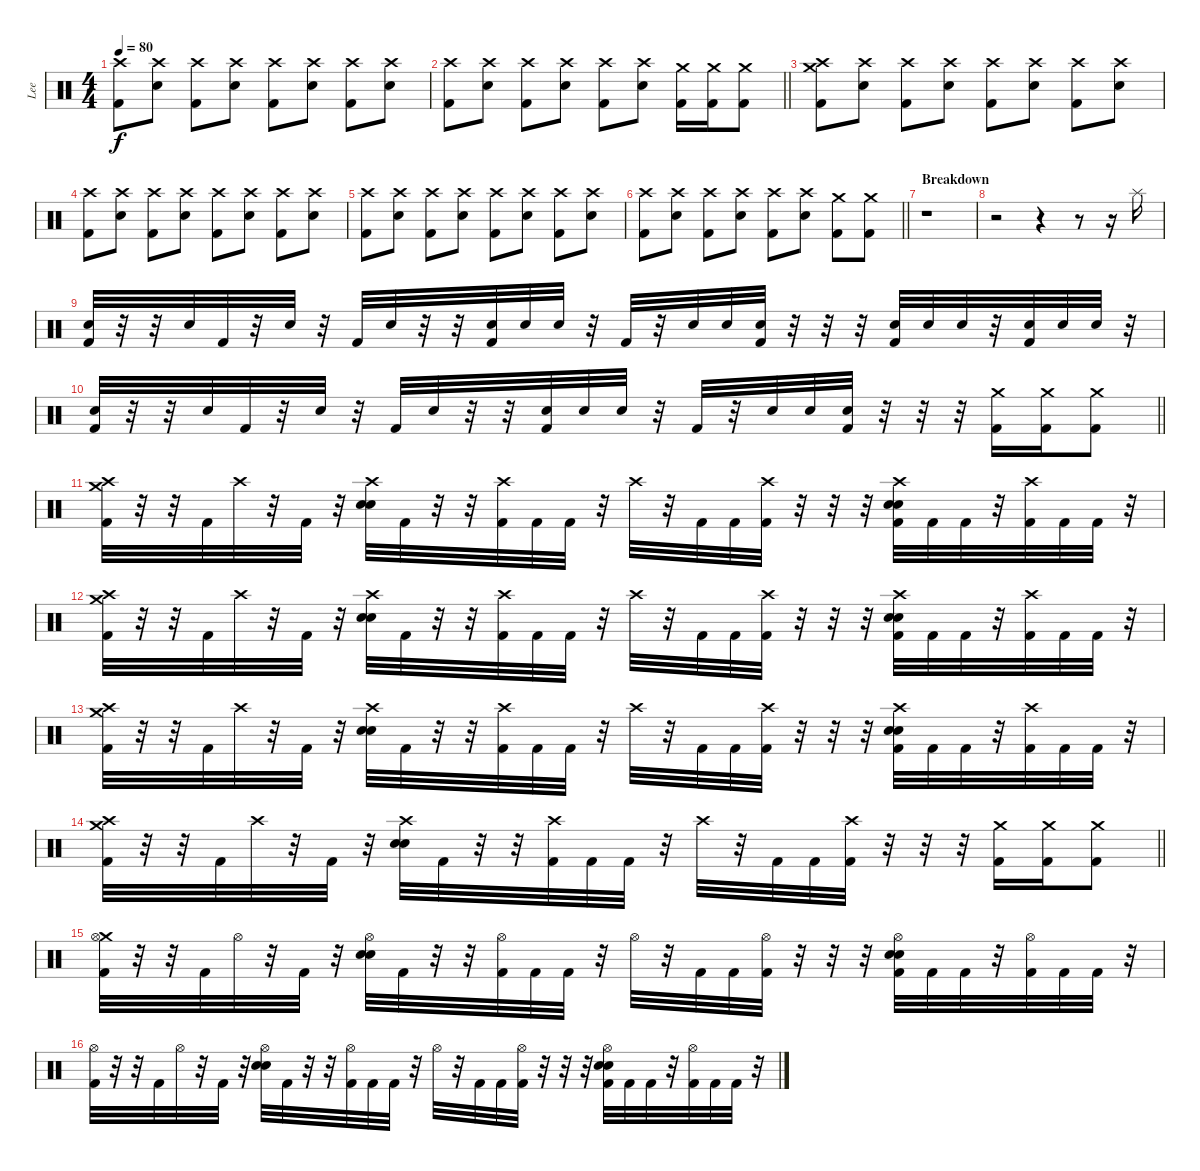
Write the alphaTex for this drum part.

\track ("Lee" "Lee") {instrument percussion}
\staff {score}
\articulation defaults
\ts (4 4)
\tempo 80
\clef neutral
\ks c
("Crash high (hit)" "Kick (hit) 2").8{dy f} ("Crash high (hit)" "Electric Snare (hit)").8 ("Crash high (hit)" "Kick (hit) 2").8 ("Crash high (hit)" "Electric Snare (hit)").8 ("Crash high (hit)" "Kick (hit) 2").8 ("Crash high (hit)" "Electric Snare (hit)").8 ("Crash high (hit)" "Kick (hit) 2").8 ("Crash high (hit)" "Electric Snare (hit)").8 |
\barLineRight lightlight
("Crash high (hit)" "Kick (hit) 2").8 ("Crash high (hit)" "Electric Snare (hit)").8 ("Crash high (hit)" "Kick (hit) 2").8 ("Crash high (hit)" "Electric Snare (hit)").8 ("Crash high (hit)" "Kick (hit) 2").8 ("Crash high (hit)" "Electric Snare (hit)").8 ("Crash medium (hit)" "Kick (hit) 2").16 ("Crash medium (hit)" "Kick (hit) 2").16 ("Crash medium (hit)" "Kick (hit) 2").8 |
("Crash high (hit)" "Crash medium (hit)" "Kick (hit) 2").8 ("Crash high (hit)" "Electric Snare (hit)").8 ("Crash high (hit)" "Kick (hit) 2").8 ("Crash high (hit)" "Electric Snare (hit)").8 ("Crash high (hit)" "Kick (hit) 2").8 ("Crash high (hit)" "Electric Snare (hit)").8 ("Crash high (hit)" "Kick (hit) 2").8 ("Crash high (hit)" "Electric Snare (hit)").8 |
("Crash high (hit)" "Kick (hit) 2").8 ("Crash high (hit)" "Electric Snare (hit)").8 ("Crash high (hit)" "Kick (hit) 2").8 ("Crash high (hit)" "Electric Snare (hit)").8 ("Crash high (hit)" "Kick (hit) 2").8 ("Crash high (hit)" "Electric Snare (hit)").8 ("Crash high (hit)" "Kick (hit) 2").8 ("Crash high (hit)" "Electric Snare (hit)").8 |
("Crash high (hit)" "Kick (hit) 2").8 ("Crash high (hit)" "Electric Snare (hit)").8 ("Crash high (hit)" "Kick (hit) 2").8 ("Crash high (hit)" "Electric Snare (hit)").8 ("Crash high (hit)" "Kick (hit) 2").8 ("Crash high (hit)" "Electric Snare (hit)").8 ("Crash high (hit)" "Kick (hit) 2").8 ("Crash high (hit)" "Electric Snare (hit)").8 |
\barLineRight lightlight
("Crash high (hit)" "Kick (hit) 2").8 ("Crash high (hit)" "Electric Snare (hit)").8 ("Crash high (hit)" "Kick (hit) 2").8 ("Crash high (hit)" "Electric Snare (hit)").8 ("Crash high (hit)" "Kick (hit) 2").8 ("Crash high (hit)" "Electric Snare (hit)").8 ("Crash medium (hit)" "Kick (hit) 2").8 ("Crash medium (hit)" "Kick (hit) 2").8 |
\section ("" "Breakdown")
r.1 |
r.2 r.4 r.8 r.16 "Splash (hit)".16 |
("Snare (hit) 2" "Kick (hit) 2").32 r.32 r.32 "Snare (hit) 2".32 "Kick (hit) 2".32 r.32 "Snare (hit) 2".32 r.32 "Kick (hit) 2".32 "Snare (hit) 2".32 r.32 r.32 ("Snare (hit) 2" "Kick (hit) 2").32 "Snare (hit) 2".32 "Snare (hit) 2".32 r.32 "Kick (hit) 2".32 r.32 "Snare (hit) 2".32 "Snare (hit) 2".32 ("Snare (hit) 2" "Kick (hit) 2").32 r.32 r.32 r.32 ("Snare (hit) 2" "Kick (hit) 2").32 "Snare (hit) 2".32 "Snare (hit) 2".32 r.32 ("Snare (hit) 2" "Kick (hit) 2").32 "Snare (hit) 2".32 "Snare (hit) 2".32 r.32 |
\barLineRight lightlight
("Snare (hit) 2" "Kick (hit) 2").32 r.32 r.32 "Snare (hit) 2".32 "Kick (hit) 2".32 r.32 "Snare (hit) 2".32 r.32 "Kick (hit) 2".32 "Snare (hit) 2".32 r.32 r.32 ("Snare (hit) 2" "Kick (hit) 2").32 "Snare (hit) 2".32 "Snare (hit) 2".32 r.32 "Kick (hit) 2".32 r.32 "Snare (hit) 2".32 "Snare (hit) 2".32 ("Snare (hit) 2" "Kick (hit) 2").32 r.32 r.32 r.32 ("Crash medium (hit)" "Kick (hit) 2").16 ("Crash medium (hit)" "Kick (hit) 2").16 ("Crash medium (hit)" "Kick (hit) 2").8 |
("Crash medium (hit)" "Crash high (hit)" "Kick (hit) 2").32 r.32 r.32 "Kick (hit) 2".32 "Crash high (hit)".32 r.32 "Kick (hit) 2".32 r.32 ("Crash high (hit)" "Electric Snare (hit)" "Snare (hit) 2").32 "Kick (hit) 2".32 r.32 r.32 ("Crash high (hit)" "Kick (hit) 2").32 "Kick (hit) 2".32 "Kick (hit) 2".32 r.32 "Crash high (hit)".32 r.32 "Kick (hit) 2".32 "Kick (hit) 2".32 ("Crash high (hit)" "Kick (hit) 2").32 r.32 r.32 r.32 ("Crash high (hit)" "Electric Snare (hit)" "Snare (hit) 2" "Kick (hit) 2").32 "Kick (hit) 2".32 "Kick (hit) 2".32 r.32 ("Crash high (hit)" "Kick (hit) 2").32 "Kick (hit) 2".32 "Kick (hit) 2".32 r.32 |
("Crash medium (hit)" "Crash high (hit)" "Kick (hit) 2").32 r.32 r.32 "Kick (hit) 2".32 "Crash high (hit)".32 r.32 "Kick (hit) 2".32 r.32 ("Crash high (hit)" "Electric Snare (hit)" "Snare (hit) 2").32 "Kick (hit) 2".32 r.32 r.32 ("Crash high (hit)" "Kick (hit) 2").32 "Kick (hit) 2".32 "Kick (hit) 2".32 r.32 "Crash high (hit)".32 r.32 "Kick (hit) 2".32 "Kick (hit) 2".32 ("Crash high (hit)" "Kick (hit) 2").32 r.32 r.32 r.32 ("Crash high (hit)" "Electric Snare (hit)" "Snare (hit) 2" "Kick (hit) 2").32 "Kick (hit) 2".32 "Kick (hit) 2".32 r.32 ("Crash high (hit)" "Kick (hit) 2").32 "Kick (hit) 2".32 "Kick (hit) 2".32 r.32 |
("Crash medium (hit)" "Crash high (hit)" "Kick (hit) 2").32 r.32 r.32 "Kick (hit) 2".32 "Crash high (hit)".32 r.32 "Kick (hit) 2".32 r.32 ("Crash high (hit)" "Electric Snare (hit)" "Snare (hit) 2").32 "Kick (hit) 2".32 r.32 r.32 ("Crash high (hit)" "Kick (hit) 2").32 "Kick (hit) 2".32 "Kick (hit) 2".32 r.32 "Crash high (hit)".32 r.32 "Kick (hit) 2".32 "Kick (hit) 2".32 ("Crash high (hit)" "Kick (hit) 2").32 r.32 r.32 r.32 ("Crash high (hit)" "Electric Snare (hit)" "Snare (hit) 2" "Kick (hit) 2").32 "Kick (hit) 2".32 "Kick (hit) 2".32 r.32 ("Crash high (hit)" "Kick (hit) 2").32 "Kick (hit) 2".32 "Kick (hit) 2".32 r.32 |
\barLineRight lightlight
("Crash medium (hit)" "Crash high (hit)" "Kick (hit) 2").32 r.32 r.32 "Kick (hit) 2".32 "Crash high (hit)".32 r.32 "Kick (hit) 2".32 r.32 ("Crash high (hit)" "Electric Snare (hit)" "Snare (hit) 2").32 "Kick (hit) 2".32 r.32 r.32 ("Crash high (hit)" "Kick (hit) 2").32 "Kick (hit) 2".32 "Kick (hit) 2".32 r.32 "Crash high (hit)".32 r.32 "Kick (hit) 2".32 "Kick (hit) 2".32 ("Crash high (hit)" "Kick (hit) 2").32 r.32 r.32 r.32 ("Crash medium (hit)" "Kick (hit) 2").16 ("Crash medium (hit)" "Kick (hit) 2").16 ("Crash medium (hit)" "Kick (hit) 2").8 |
("Crash medium (hit)" "Hi-Hat (open)" "Kick (hit) 2").32 r.32 r.32 "Kick (hit) 2".32 "Hi-Hat (open)".32 r.32 "Kick (hit) 2".32 r.32 ("Hi-Hat (open)" "Electric Snare (hit)" "Snare (hit) 2").32 "Kick (hit) 2".32 r.32 r.32 ("Hi-Hat (open)" "Kick (hit) 2").32 "Kick (hit) 2".32 "Kick (hit) 2".32 r.32 "Hi-Hat (open)".32 r.32 "Kick (hit) 2".32 "Kick (hit) 2".32 ("Hi-Hat (open)" "Kick (hit) 2").32 r.32 r.32 r.32 ("Hi-Hat (open)" "Electric Snare (hit)" "Snare (hit) 2" "Kick (hit) 2").32 "Kick (hit) 2".32 "Kick (hit) 2".32 r.32 ("Hi-Hat (open)" "Kick (hit) 2").32 "Kick (hit) 2".32 "Kick (hit) 2".32 r.32 |
("Hi-Hat (open)" "Kick (hit) 2").32 r.32 r.32 "Kick (hit) 2".32 "Hi-Hat (open)".32 r.32 "Kick (hit) 2".32 r.32 ("Hi-Hat (open)" "Electric Snare (hit)" "Snare (hit) 2").32 "Kick (hit) 2".32 r.32 r.32 ("Hi-Hat (open)" "Kick (hit) 2").32 "Kick (hit) 2".32 "Kick (hit) 2".32 r.32 "Hi-Hat (open)".32 r.32 "Kick (hit) 2".32 "Kick (hit) 2".32 ("Hi-Hat (open)" "Kick (hit) 2").32 r.32 r.32 r.32 ("Hi-Hat (open)" "Electric Snare (hit)" "Snare (hit) 2" "Kick (hit) 2").32 "Kick (hit) 2".32 "Kick (hit) 2".32 r.32 ("Hi-Hat (open)" "Kick (hit) 2").32 "Kick (hit) 2".32 "Kick (hit) 2".32 r.32
